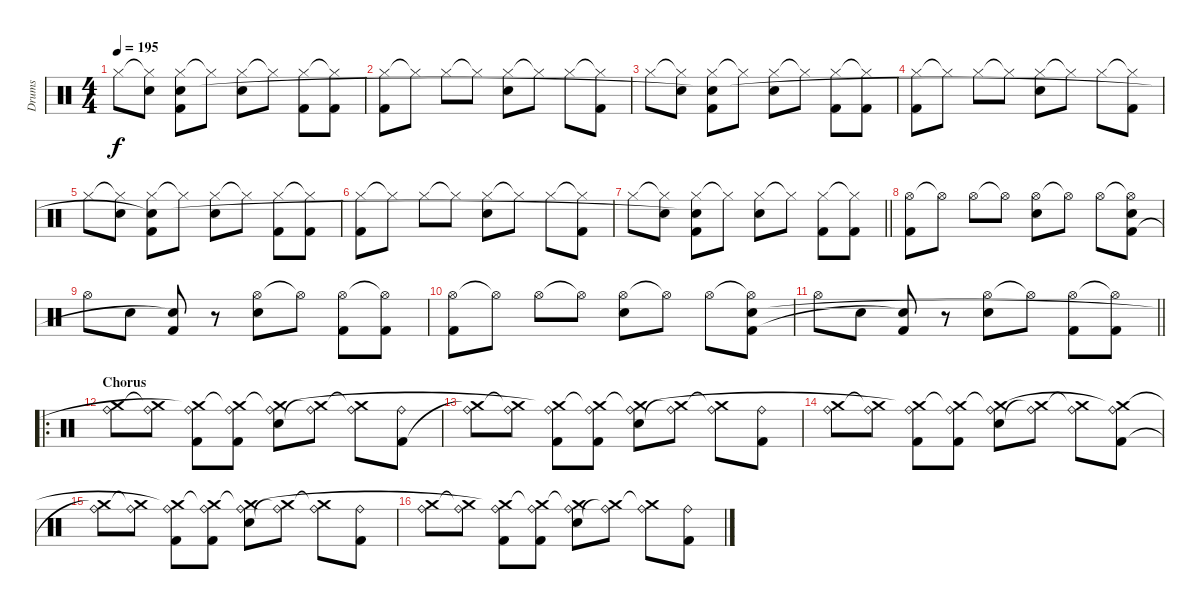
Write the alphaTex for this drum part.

\track ("Drums" "Drums") {instrument percussion}
\staff {score}
\articulation defaults
\ts (4 4)
\tempo 195
\clef neutral
\ks c "Hi-Hat (closed)".8{dy f}
("Hi-Hat (closed)"{t} "Snare (hit) 2").8 ("Hi-Hat (closed)" "Kick (hit) 2" "Snare (hit) 2"{t}).8 "Hi-Hat (closed)"{t}.8 ("Hi-Hat (closed)" "Snare (hit) 2").8 "Hi-Hat (closed)"{t}.8 ("Hi-Hat (closed)" "Kick (hit) 2").8 ("Hi-Hat (closed)"{t} "Kick (hit) 2").8 |
("Hi-Hat (closed)" "Kick (hit) 2").8 "Hi-Hat (closed)"{t}.8 "Hi-Hat (closed)".8 "Hi-Hat (closed)"{t}.8 ("Hi-Hat (closed)" "Snare (hit) 2").8 "Hi-Hat (closed)"{t}.8 "Hi-Hat (closed)".8 ("Hi-Hat (closed)"{t} "Kick (hit) 2").8 |
"Hi-Hat (closed)".8 ("Hi-Hat (closed)"{t} "Snare (hit) 2").8 ("Hi-Hat (closed)" "Kick (hit) 2" "Snare (hit) 2"{t}).8 "Hi-Hat (closed)"{t}.8 ("Hi-Hat (closed)" "Snare (hit) 2").8 "Hi-Hat (closed)"{t}.8 ("Hi-Hat (closed)" "Kick (hit) 2").8 ("Hi-Hat (closed)"{t} "Kick (hit) 2").8 |
("Hi-Hat (closed)" "Kick (hit) 2").8 "Hi-Hat (closed)"{t}.8 "Hi-Hat (closed)".8 "Hi-Hat (closed)"{t}.8 ("Hi-Hat (closed)" "Snare (hit) 2").8 "Hi-Hat (closed)"{t}.8 "Hi-Hat (closed)".8 ("Hi-Hat (closed)"{t} "Kick (hit) 2").8 |
"Hi-Hat (closed)".8 ("Hi-Hat (closed)"{t} "Snare (hit) 2").8 ("Hi-Hat (closed)" "Kick (hit) 2" "Snare (hit) 2"{t}).8 "Hi-Hat (closed)"{t}.8 ("Hi-Hat (closed)" "Snare (hit) 2").8 "Hi-Hat (closed)"{t}.8 ("Hi-Hat (closed)" "Kick (hit) 2").8 ("Hi-Hat (closed)"{t} "Kick (hit) 2").8 |
("Hi-Hat (closed)" "Kick (hit) 2").8 "Hi-Hat (closed)"{t}.8 "Hi-Hat (closed)".8 "Hi-Hat (closed)"{t}.8 ("Hi-Hat (closed)" "Snare (hit) 2").8 "Hi-Hat (closed)"{t}.8 "Hi-Hat (closed)".8 ("Hi-Hat (closed)"{t} "Kick (hit) 2").8 |
\barLineRight lightlight "Hi-Hat (closed)".8
("Hi-Hat (closed)"{t} "Snare (hit) 2").8 ("Hi-Hat (closed)" "Kick (hit) 2" "Snare (hit) 2"{t}).8 "Hi-Hat (closed)"{t}.8 ("Hi-Hat (closed)" "Snare (hit) 2").8 "Hi-Hat (closed)"{t}.8 ("Hi-Hat (closed)" "Kick (hit) 2").8 ("Hi-Hat (closed)"{t} "Kick (hit) 2").8 |
("Hi-Hat (open)" "Kick (hit) 2").8 "Hi-Hat (open)"{t}.8 "Hi-Hat (open)".8 "Hi-Hat (open)"{t}.8 ("Hi-Hat (open)" "Snare (hit) 2").8 "Hi-Hat (open)"{t}.8 "Hi-Hat (open)".8 ("Hi-Hat (open)"{t} "Kick (hit) 2" "Snare (hit) 2").8 |
"Hi-Hat (open)".8 "Snare (hit) 2".8 ("Kick (hit) 2" "Snare (hit) 2"{t}).8 r.8 ("Hi-Hat (open)" "Snare (hit) 2").8 "Hi-Hat (open)"{t}.8 ("Hi-Hat (open)" "Kick (hit) 2").8 ("Hi-Hat (open)"{t} "Kick (hit) 2").8 |
("Hi-Hat (open)" "Kick (hit) 2").8 "Hi-Hat (open)"{t}.8 "Hi-Hat (open)".8 "Hi-Hat (open)"{t}.8 ("Hi-Hat (open)" "Snare (hit) 2").8 "Hi-Hat (open)"{t}.8 "Hi-Hat (open)".8 ("Hi-Hat (open)"{t} "Kick (hit) 2" "Snare (hit) 2").8 |
\barLineRight lightlight "Hi-Hat (open)".8 "Snare (hit) 2".8
("Kick (hit) 2" "Snare (hit) 2"{t}).8 r.8 ("Hi-Hat (open)" "Snare (hit) 2").8 "Hi-Hat (open)"{t}.8 ("Hi-Hat (open)" "Kick (hit) 2").8 ("Hi-Hat (open)"{t} "Kick (hit) 2").8 |
\ro
\section ("" "Chorus")
("Ride (bell)" "Crash medium (hit)").8 ("Ride (bell)" "Crash medium (hit)"{t}).8 ("Ride (bell)" "Kick (hit) 2" "Crash medium (hit)"{t}).8 ("Ride (bell)" "Kick (hit) 2" "Crash medium (hit)"{t}).8 ("Ride (bell)" "Snare (hit) 2" "Crash medium (hit)"{t}).8 ("Ride (bell)" "Crash medium (hit)"{t}).8 ("Ride (bell)" "Crash medium (hit)"{t}).8 ("Ride (bell)" "Kick (hit) 2").8 |
("Ride (bell)" "Crash medium (hit)"{t}).8 ("Ride (bell)" "Crash medium (hit)"{t}).8 ("Ride (bell)" "Kick (hit) 2" "Crash medium (hit)"{t}).8 ("Ride (bell)" "Kick (hit) 2" "Crash medium (hit)"{t}).8 ("Ride (bell)" "Snare (hit) 2" "Crash medium (hit)"{t}).8 ("Ride (bell)" "Crash medium (hit)"{t}).8 ("Ride (bell)" "Crash medium (hit)"{t}).8 ("Ride (bell)" "Kick (hit) 2").8 |
("Ride (bell)" "Crash medium (hit)").8 ("Ride (bell)" "Crash medium (hit)"{t}).8 ("Ride (bell)" "Kick (hit) 2" "Crash medium (hit)"{t}).8 ("Ride (bell)" "Kick (hit) 2" "Crash medium (hit)"{t}).8 ("Ride (bell)" "Snare (hit) 2" "Crash medium (hit)"{t}).8 ("Ride (bell)" "Crash medium (hit)"{t}).8 ("Ride (bell)" "Crash medium (hit)"{t}).8 ("Ride (bell)" "Kick (hit) 2" "Crash medium (hit)"{t}).8 |
("Ride (bell)" "Crash medium (hit)"{t}).8 ("Ride (bell)" "Crash medium (hit)"{t}).8 ("Ride (bell)" "Kick (hit) 2" "Crash medium (hit)"{t}).8 ("Ride (bell)" "Kick (hit) 2" "Crash medium (hit)"{t}).8 ("Ride (bell)" "Snare (hit) 2" "Crash medium (hit)"{t}).8 ("Ride (bell)" "Crash medium (hit)"{t}).8 ("Ride (bell)" "Crash medium (hit)"{t}).8 ("Ride (bell)" "Kick (hit) 2").8 |
("Ride (bell)" "Crash medium (hit)").8 ("Ride (bell)" "Crash medium (hit)"{t}).8 ("Ride (bell)" "Kick (hit) 2" "Crash medium (hit)"{t}).8 ("Ride (bell)" "Kick (hit) 2" "Crash medium (hit)"{t}).8 ("Ride (bell)" "Snare (hit) 2" "Crash medium (hit)"{t}).8 ("Ride (bell)" "Crash medium (hit)"{t}).8 ("Ride (bell)" "Crash medium (hit)"{t}).8 ("Ride (bell)" "Kick (hit) 2").8
